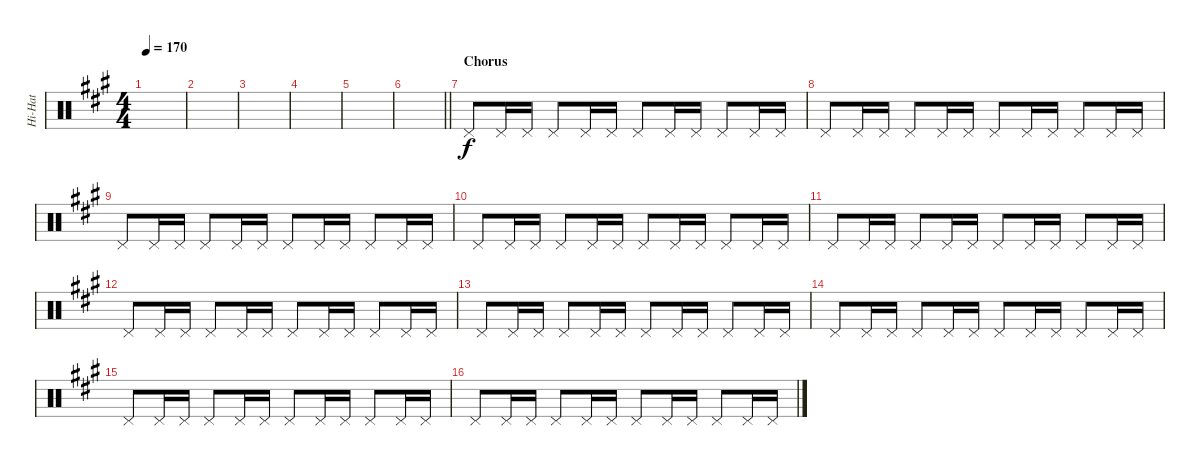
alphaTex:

\track ("Hi-Hat" "Hi-Hat") {instrument percussion}
\staff {score}
\articulation defaults
\ts (4 4)
\tempo 170
\clef neutral
\ks a
|
|
|
|
|
\barLineRight lightlight
|
\section ("" "Chorus")
"Pedal Hi-Hat (hit)".8 "Pedal Hi-Hat (hit)".16 "Pedal Hi-Hat (hit)".16 "Pedal Hi-Hat (hit)".8 "Pedal Hi-Hat (hit)".16 "Pedal Hi-Hat (hit)".16 "Pedal Hi-Hat (hit)".8 "Pedal Hi-Hat (hit)".16 "Pedal Hi-Hat (hit)".16 "Pedal Hi-Hat (hit)".8 "Pedal Hi-Hat (hit)".16 "Pedal Hi-Hat (hit)".16 |
"Pedal Hi-Hat (hit)".8 "Pedal Hi-Hat (hit)".16 "Pedal Hi-Hat (hit)".16 "Pedal Hi-Hat (hit)".8 "Pedal Hi-Hat (hit)".16 "Pedal Hi-Hat (hit)".16 "Pedal Hi-Hat (hit)".8 "Pedal Hi-Hat (hit)".16 "Pedal Hi-Hat (hit)".16 "Pedal Hi-Hat (hit)".8 "Pedal Hi-Hat (hit)".16 "Pedal Hi-Hat (hit)".16 |
"Pedal Hi-Hat (hit)".8 "Pedal Hi-Hat (hit)".16 "Pedal Hi-Hat (hit)".16 "Pedal Hi-Hat (hit)".8 "Pedal Hi-Hat (hit)".16 "Pedal Hi-Hat (hit)".16 "Pedal Hi-Hat (hit)".8 "Pedal Hi-Hat (hit)".16 "Pedal Hi-Hat (hit)".16 "Pedal Hi-Hat (hit)".8 "Pedal Hi-Hat (hit)".16 "Pedal Hi-Hat (hit)".16 |
"Pedal Hi-Hat (hit)".8 "Pedal Hi-Hat (hit)".16 "Pedal Hi-Hat (hit)".16 "Pedal Hi-Hat (hit)".8 "Pedal Hi-Hat (hit)".16 "Pedal Hi-Hat (hit)".16 "Pedal Hi-Hat (hit)".8 "Pedal Hi-Hat (hit)".16 "Pedal Hi-Hat (hit)".16 "Pedal Hi-Hat (hit)".8 "Pedal Hi-Hat (hit)".16 "Pedal Hi-Hat (hit)".16 |
"Pedal Hi-Hat (hit)".8 "Pedal Hi-Hat (hit)".16 "Pedal Hi-Hat (hit)".16 "Pedal Hi-Hat (hit)".8 "Pedal Hi-Hat (hit)".16 "Pedal Hi-Hat (hit)".16 "Pedal Hi-Hat (hit)".8 "Pedal Hi-Hat (hit)".16 "Pedal Hi-Hat (hit)".16 "Pedal Hi-Hat (hit)".8 "Pedal Hi-Hat (hit)".16 "Pedal Hi-Hat (hit)".16 |
"Pedal Hi-Hat (hit)".8 "Pedal Hi-Hat (hit)".16 "Pedal Hi-Hat (hit)".16 "Pedal Hi-Hat (hit)".8 "Pedal Hi-Hat (hit)".16 "Pedal Hi-Hat (hit)".16 "Pedal Hi-Hat (hit)".8 "Pedal Hi-Hat (hit)".16 "Pedal Hi-Hat (hit)".16 "Pedal Hi-Hat (hit)".8 "Pedal Hi-Hat (hit)".16 "Pedal Hi-Hat (hit)".16 |
"Pedal Hi-Hat (hit)".8 "Pedal Hi-Hat (hit)".16 "Pedal Hi-Hat (hit)".16 "Pedal Hi-Hat (hit)".8 "Pedal Hi-Hat (hit)".16 "Pedal Hi-Hat (hit)".16 "Pedal Hi-Hat (hit)".8 "Pedal Hi-Hat (hit)".16 "Pedal Hi-Hat (hit)".16 "Pedal Hi-Hat (hit)".8 "Pedal Hi-Hat (hit)".16 "Pedal Hi-Hat (hit)".16 |
"Pedal Hi-Hat (hit)".8 "Pedal Hi-Hat (hit)".16 "Pedal Hi-Hat (hit)".16 "Pedal Hi-Hat (hit)".8 "Pedal Hi-Hat (hit)".16 "Pedal Hi-Hat (hit)".16 "Pedal Hi-Hat (hit)".8 "Pedal Hi-Hat (hit)".16 "Pedal Hi-Hat (hit)".16 "Pedal Hi-Hat (hit)".8 "Pedal Hi-Hat (hit)".16 "Pedal Hi-Hat (hit)".16 |
"Pedal Hi-Hat (hit)".8 "Pedal Hi-Hat (hit)".16 "Pedal Hi-Hat (hit)".16 "Pedal Hi-Hat (hit)".8 "Pedal Hi-Hat (hit)".16 "Pedal Hi-Hat (hit)".16 "Pedal Hi-Hat (hit)".8 "Pedal Hi-Hat (hit)".16 "Pedal Hi-Hat (hit)".16 "Pedal Hi-Hat (hit)".8 "Pedal Hi-Hat (hit)".16 "Pedal Hi-Hat (hit)".16 |
"Pedal Hi-Hat (hit)".8 "Pedal Hi-Hat (hit)".16 "Pedal Hi-Hat (hit)".16 "Pedal Hi-Hat (hit)".8 "Pedal Hi-Hat (hit)".16 "Pedal Hi-Hat (hit)".16 "Pedal Hi-Hat (hit)".8 "Pedal Hi-Hat (hit)".16 "Pedal Hi-Hat (hit)".16 "Pedal Hi-Hat (hit)".8 "Pedal Hi-Hat (hit)".16 "Pedal Hi-Hat (hit)".16
